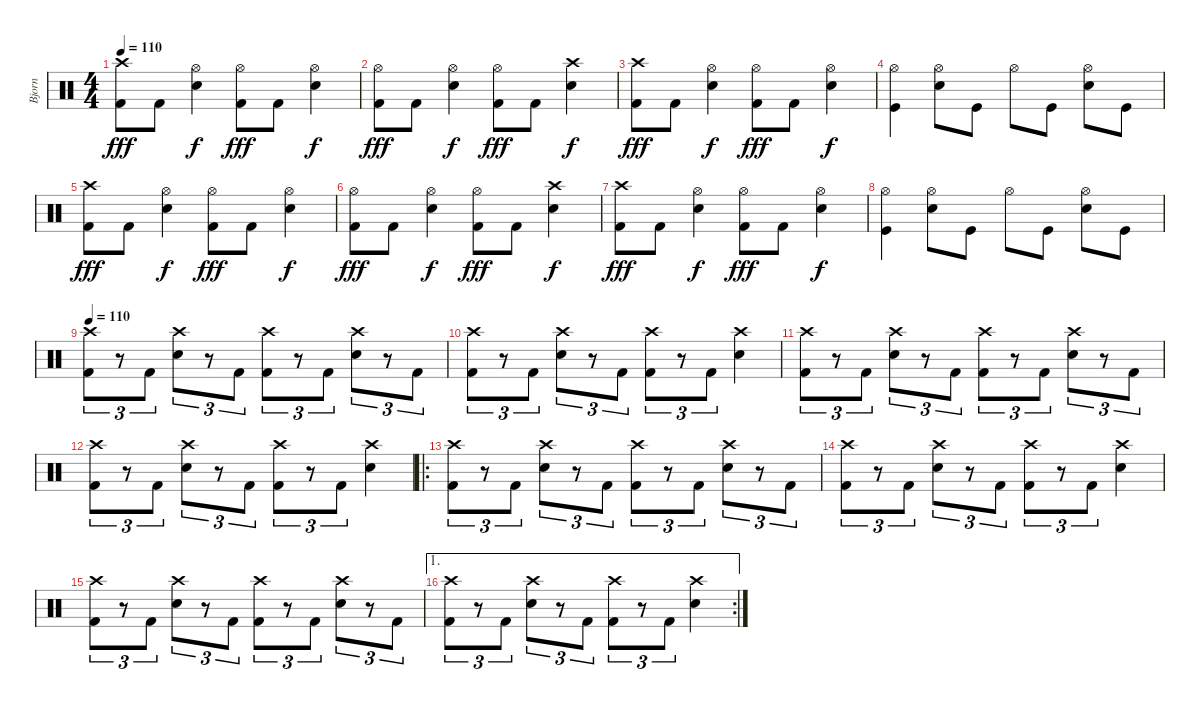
\track ("Bjorn " "Bjorn ") {instrument percussion}
\staff {score}
\articulation defaults
\ts (4 4)
\tempo 140
\tempo 110
\clef neutral
\ks c
("Crash high (hit)" "Kick (hit) 2").8{dy fff} "Kick (hit) 2".8 ("Hi-Hat (open)" "Electric Snare (hit)").4{dy f} ("Hi-Hat (open)" "Kick (hit) 2").8{dy fff} "Kick (hit) 2".8 ("Hi-Hat (open)" "Electric Snare (hit)").4{dy f} |
("Hi-Hat (open)" "Kick (hit) 2").8{dy fff} "Kick (hit) 2".8 ("Hi-Hat (open)" "Electric Snare (hit)").4{dy f} ("Hi-Hat (open)" "Kick (hit) 2").8{dy fff} "Kick (hit) 2".8 ("Crash high (hit)" "Electric Snare (hit)").4{dy f} |
("Crash high (hit)" "Kick (hit) 2").8{dy fff} "Kick (hit) 2".8 ("Hi-Hat (open)" "Electric Snare (hit)").4{dy f} ("Hi-Hat (open)" "Kick (hit) 2").8{dy fff} "Kick (hit) 2".8 ("Hi-Hat (open)" "Electric Snare (hit)").4{dy f} |
("Hi-Hat (open)" "Kick (hit)").4 ("Hi-Hat (open)" "Electric Snare (hit)").8 "Kick (hit)".8 "Hi-Hat (open)".8 "Kick (hit)".8 ("Hi-Hat (open)" "Electric Snare (hit)").8 "Kick (hit)".8 |
("Crash high (hit)" "Kick (hit) 2").8{dy fff} "Kick (hit) 2".8 ("Hi-Hat (open)" "Electric Snare (hit)").4{dy f} ("Hi-Hat (open)" "Kick (hit) 2").8{dy fff} "Kick (hit) 2".8 ("Hi-Hat (open)" "Electric Snare (hit)").4{dy f} |
("Hi-Hat (open)" "Kick (hit) 2").8{dy fff} "Kick (hit) 2".8 ("Hi-Hat (open)" "Electric Snare (hit)").4{dy f} ("Hi-Hat (open)" "Kick (hit) 2").8{dy fff} "Kick (hit) 2".8 ("Crash high (hit)" "Electric Snare (hit)").4{dy f} |
("Crash high (hit)" "Kick (hit) 2").8{dy fff} "Kick (hit) 2".8 ("Hi-Hat (open)" "Electric Snare (hit)").4{dy f} ("Hi-Hat (open)" "Kick (hit) 2").8{dy fff} "Kick (hit) 2".8 ("Hi-Hat (open)" "Electric Snare (hit)").4{dy f} |
("Hi-Hat (open)" "Kick (hit)").4 ("Hi-Hat (open)" "Electric Snare (hit)").8 "Kick (hit)".8 "Hi-Hat (open)".8 "Kick (hit)".8 ("Hi-Hat (open)" "Electric Snare (hit)").8 "Kick (hit)".8 |
\tempo 110
("Crash high (hit)" "Kick (hit) 2").8{tu (3 2)} r.8{tu (3 2)} "Kick (hit) 2".8{tu (3 2)} ("Crash high (hit)" "Electric Snare (hit)").8{tu (3 2)} r.8{tu (3 2)} "Kick (hit) 2".8{tu (3 2)} ("Crash high (hit)" "Kick (hit) 2").8{tu (3 2)} r.8{tu (3 2)} "Kick (hit) 2".8{tu (3 2)} ("Crash high (hit)" "Electric Snare (hit)").8{tu (3 2)} r.8{tu (3 2)} "Kick (hit) 2".8{tu (3 2)} |
("Crash high (hit)" "Kick (hit) 2").8{tu (3 2)} r.8{tu (3 2)} "Kick (hit) 2".8{tu (3 2)} ("Crash high (hit)" "Electric Snare (hit)").8{tu (3 2)} r.8{tu (3 2)} "Kick (hit) 2".8{tu (3 2)} ("Crash high (hit)" "Kick (hit) 2").8{tu (3 2)} r.8{tu (3 2)} "Kick (hit) 2".8{tu (3 2)} ("Crash high (hit)" "Electric Snare (hit)").4 |
("Crash high (hit)" "Kick (hit) 2").8{tu (3 2)} r.8{tu (3 2)} "Kick (hit) 2".8{tu (3 2)} ("Crash high (hit)" "Electric Snare (hit)").8{tu (3 2)} r.8{tu (3 2)} "Kick (hit) 2".8{tu (3 2)} ("Crash high (hit)" "Kick (hit) 2").8{tu (3 2)} r.8{tu (3 2)} "Kick (hit) 2".8{tu (3 2)} ("Crash high (hit)" "Electric Snare (hit)").8{tu (3 2)} r.8{tu (3 2)} "Kick (hit) 2".8{tu (3 2)} |
("Crash high (hit)" "Kick (hit) 2").8{tu (3 2)} r.8{tu (3 2)} "Kick (hit) 2".8{tu (3 2)} ("Crash high (hit)" "Electric Snare (hit)").8{tu (3 2)} r.8{tu (3 2)} "Kick (hit) 2".8{tu (3 2)} ("Crash high (hit)" "Kick (hit) 2").8{tu (3 2)} r.8{tu (3 2)} "Kick (hit) 2".8{tu (3 2)} ("Crash high (hit)" "Electric Snare (hit)").4 |
\ro
("Crash high (hit)" "Kick (hit) 2").8{tu (3 2)} r.8{tu (3 2)} "Kick (hit) 2".8{tu (3 2)} ("Crash high (hit)" "Electric Snare (hit)").8{tu (3 2)} r.8{tu (3 2)} "Kick (hit) 2".8{tu (3 2)} ("Crash high (hit)" "Kick (hit) 2").8{tu (3 2)} r.8{tu (3 2)} "Kick (hit) 2".8{tu (3 2)} ("Crash high (hit)" "Electric Snare (hit)").8{tu (3 2)} r.8{tu (3 2)} "Kick (hit) 2".8{tu (3 2)} |
("Crash high (hit)" "Kick (hit) 2").8{tu (3 2)} r.8{tu (3 2)} "Kick (hit) 2".8{tu (3 2)} ("Crash high (hit)" "Electric Snare (hit)").8{tu (3 2)} r.8{tu (3 2)} "Kick (hit) 2".8{tu (3 2)} ("Crash high (hit)" "Kick (hit) 2").8{tu (3 2)} r.8{tu (3 2)} "Kick (hit) 2".8{tu (3 2)} ("Crash high (hit)" "Electric Snare (hit)").4 |
("Crash high (hit)" "Kick (hit) 2").8{tu (3 2)} r.8{tu (3 2)} "Kick (hit) 2".8{tu (3 2)} ("Crash high (hit)" "Electric Snare (hit)").8{tu (3 2)} r.8{tu (3 2)} "Kick (hit) 2".8{tu (3 2)} ("Crash high (hit)" "Kick (hit) 2").8{tu (3 2)} r.8{tu (3 2)} "Kick (hit) 2".8{tu (3 2)} ("Crash high (hit)" "Electric Snare (hit)").8{tu (3 2)} r.8{tu (3 2)} "Kick (hit) 2".8{tu (3 2)} |
\ae 1
\rc 2
("Crash high (hit)" "Kick (hit) 2").8{tu (3 2)} r.8{tu (3 2)} "Kick (hit) 2".8{tu (3 2)} ("Crash high (hit)" "Electric Snare (hit)").8{tu (3 2)} r.8{tu (3 2)} "Kick (hit) 2".8{tu (3 2)} ("Crash high (hit)" "Kick (hit) 2").8{tu (3 2)} r.8{tu (3 2)} "Kick (hit) 2".8{tu (3 2)} ("Crash high (hit)" "Electric Snare (hit)").4
